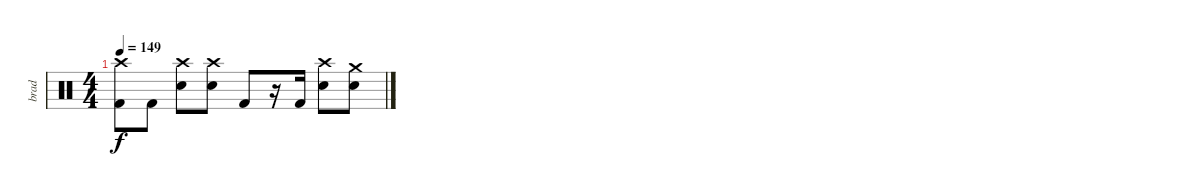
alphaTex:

\track ("brad" "brad") {instrument percussion}
\staff {score}
\articulation defaults
\ts (4 4)
\tempo 149
\clef neutral
\ks c
("Crash high (hit)" "Kick (hit) 2").8{dy f} "Kick (hit) 2".8 ("Crash high (hit)" "Electric Snare (hit)").8 ("Crash high (hit)" "Electric Snare (hit)").8 "Kick (hit) 2".8 r.16 "Kick (hit) 2".16 ("Crash high (hit)" "Electric Snare (hit)").8 ("Crash medium (hit)" "Electric Snare (hit)").8
